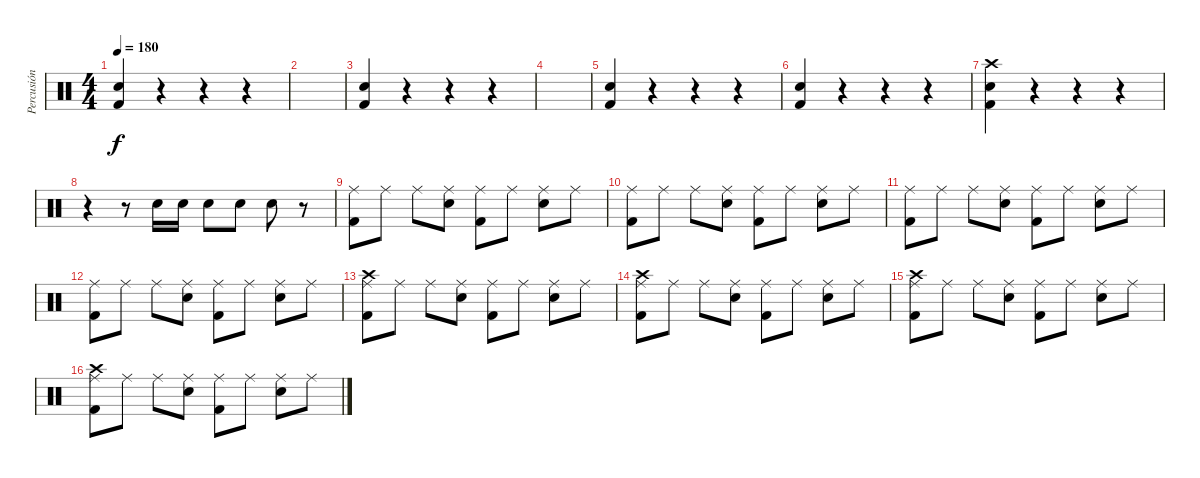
\track ("Percusión" "Percusión") {instrument percussion}
\staff {score}
\articulation defaults
\ts (4 4)
\tempo 180
\clef neutral
\ks c
("Kick (hit) 2" "Snare (hit) 2").4{dy f} r.4 r.4 r.4 |
|
("Kick (hit) 2" "Snare (hit) 2").4 r.4 r.4 r.4 |
|
("Kick (hit) 2" "Snare (hit) 2").4 r.4 r.4 r.4 |
("Kick (hit) 2" "Snare (hit) 2").4 r.4 r.4 r.4 |
("Kick (hit) 2" "Snare (hit) 2" "Crash high (hit)").4 r.4 r.4 r.4 |
r.4 r.8 "Snare (hit) 2".16 "Snare (hit) 2".16 "Snare (hit) 2".8 "Snare (hit) 2".8 "Snare (hit) 2".8 r.8 |
("Kick (hit) 2" "Ride (middle)").8 "Ride (middle)".8 "Ride (middle)".8 ("Snare (hit) 2" "Ride (middle)").8 ("Kick (hit) 2" "Ride (middle)").8 "Ride (middle)".8 ("Snare (hit) 2" "Ride (middle)").8 "Ride (middle)".8 |
("Kick (hit) 2" "Ride (middle)").8 "Ride (middle)".8 "Ride (middle)".8 ("Snare (hit) 2" "Ride (middle)").8 ("Kick (hit) 2" "Ride (middle)").8 "Ride (middle)".8 ("Snare (hit) 2" "Ride (middle)").8 "Ride (middle)".8 |
("Kick (hit) 2" "Ride (middle)").8 "Ride (middle)".8 "Ride (middle)".8 ("Snare (hit) 2" "Ride (middle)").8 ("Kick (hit) 2" "Ride (middle)").8 "Ride (middle)".8 ("Snare (hit) 2" "Ride (middle)").8 "Ride (middle)".8 |
("Kick (hit) 2" "Ride (middle)").8 "Ride (middle)".8 "Ride (middle)".8 ("Snare (hit) 2" "Ride (middle)").8 ("Kick (hit) 2" "Ride (middle)").8 "Ride (middle)".8 ("Snare (hit) 2" "Ride (middle)").8 "Ride (middle)".8 |
("Kick (hit) 2" "Crash high (hit)" "Ride (middle)").8 "Ride (middle)".8 "Ride (middle)".8 ("Snare (hit) 2" "Ride (middle)").8 ("Kick (hit) 2" "Ride (middle)").8 "Ride (middle)".8 ("Snare (hit) 2" "Ride (middle)").8 "Ride (middle)".8 |
("Kick (hit) 2" "Crash high (hit)" "Ride (middle)").8 "Ride (middle)".8 "Ride (middle)".8 ("Snare (hit) 2" "Ride (middle)").8 ("Kick (hit) 2" "Ride (middle)").8 "Ride (middle)".8 ("Snare (hit) 2" "Ride (middle)").8 "Ride (middle)".8 |
("Kick (hit) 2" "Crash high (hit)" "Ride (middle)").8 "Ride (middle)".8 "Ride (middle)".8 ("Snare (hit) 2" "Ride (middle)").8 ("Kick (hit) 2" "Ride (middle)").8 "Ride (middle)".8 ("Snare (hit) 2" "Ride (middle)").8 "Ride (middle)".8 |
("Kick (hit) 2" "Crash high (hit)" "Ride (middle)").8 "Ride (middle)".8 "Ride (middle)".8 ("Snare (hit) 2" "Ride (middle)").8 ("Kick (hit) 2" "Ride (middle)").8 "Ride (middle)".8 ("Snare (hit) 2" "Ride (middle)").8 "Ride (middle)".8
